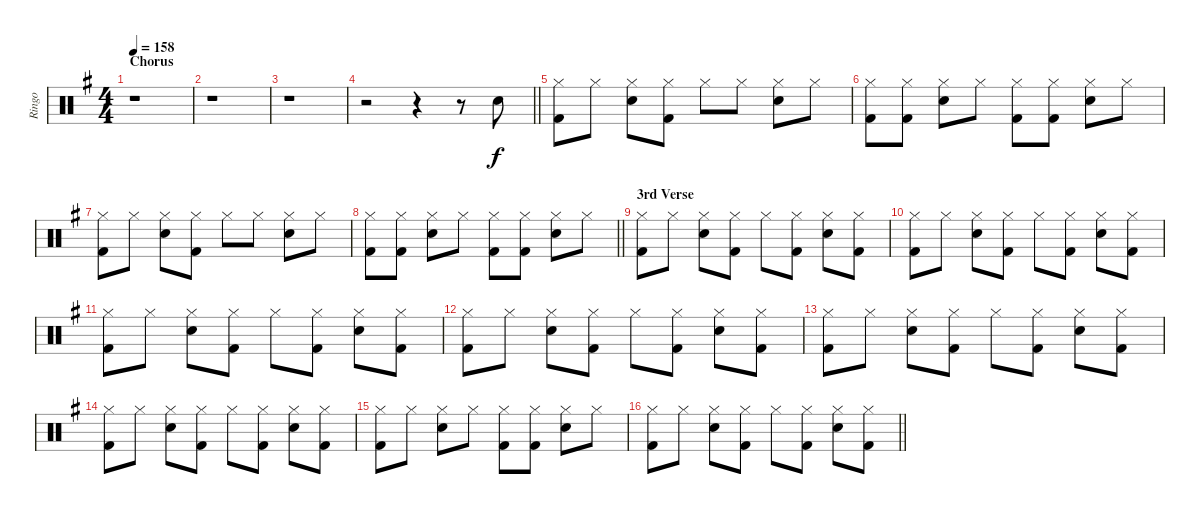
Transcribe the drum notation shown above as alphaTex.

\track ("Ringo" "Ringo") {instrument percussion}
\staff {score}
\articulation defaults
\ts (4 4)
\section ("" "Chorus")
\tempo 158
\clef neutral
\ks g
r.1{dy f} |
r.1 |
r.1 |
\barLineRight lightlight
r.2 r.4 r.8 "Electric Snare (hit)".8 |
\section ("" "")
("Hi-Hat (closed)" "Kick (hit) 2").8 "Hi-Hat (closed)".8 ("Hi-Hat (closed)" "Electric Snare (hit)").8 ("Hi-Hat (closed)" "Kick (hit) 2").8 "Hi-Hat (closed)".8 "Hi-Hat (closed)".8 ("Hi-Hat (closed)" "Electric Snare (hit)").8 "Hi-Hat (closed)".8 |
("Hi-Hat (closed)" "Kick (hit) 2").8 ("Hi-Hat (closed)" "Kick (hit) 2").8 ("Hi-Hat (closed)" "Electric Snare (hit)").8 "Hi-Hat (closed)".8 ("Hi-Hat (closed)" "Kick (hit) 2").8 ("Hi-Hat (closed)" "Kick (hit) 2").8 ("Hi-Hat (closed)" "Electric Snare (hit)").8 "Hi-Hat (closed)".8 |
("Hi-Hat (closed)" "Kick (hit) 2").8 "Hi-Hat (closed)".8 ("Hi-Hat (closed)" "Electric Snare (hit)").8 ("Hi-Hat (closed)" "Kick (hit) 2").8 "Hi-Hat (closed)".8 "Hi-Hat (closed)".8 ("Hi-Hat (closed)" "Electric Snare (hit)").8 "Hi-Hat (closed)".8 |
\barLineRight lightlight
("Hi-Hat (closed)" "Kick (hit) 2").8 ("Hi-Hat (closed)" "Kick (hit) 2").8 ("Hi-Hat (closed)" "Electric Snare (hit)").8 "Hi-Hat (closed)".8 ("Hi-Hat (closed)" "Kick (hit) 2").8 ("Hi-Hat (closed)" "Kick (hit) 2").8 ("Hi-Hat (closed)" "Electric Snare (hit)").8 "Hi-Hat (closed)".8 |
\section ("" "3rd Verse")
("Hi-Hat (closed)" "Kick (hit) 2").8 "Hi-Hat (closed)".8 ("Hi-Hat (closed)" "Electric Snare (hit)").8 ("Hi-Hat (closed)" "Kick (hit) 2").8 "Hi-Hat (closed)".8 ("Hi-Hat (closed)" "Kick (hit) 2").8 ("Hi-Hat (closed)" "Electric Snare (hit)").8 ("Hi-Hat (closed)" "Kick (hit) 2").8 |
("Hi-Hat (closed)" "Kick (hit) 2").8 "Hi-Hat (closed)".8 ("Hi-Hat (closed)" "Electric Snare (hit)").8 ("Hi-Hat (closed)" "Kick (hit) 2").8 "Hi-Hat (closed)".8 ("Hi-Hat (closed)" "Kick (hit) 2").8 ("Hi-Hat (closed)" "Electric Snare (hit)").8 ("Hi-Hat (closed)" "Kick (hit) 2").8 |
("Hi-Hat (closed)" "Kick (hit) 2").8 "Hi-Hat (closed)".8 ("Hi-Hat (closed)" "Electric Snare (hit)").8 ("Hi-Hat (closed)" "Kick (hit) 2").8 "Hi-Hat (closed)".8 ("Hi-Hat (closed)" "Kick (hit) 2").8 ("Hi-Hat (closed)" "Electric Snare (hit)").8 ("Hi-Hat (closed)" "Kick (hit) 2").8 |
("Hi-Hat (closed)" "Kick (hit) 2").8 "Hi-Hat (closed)".8 ("Hi-Hat (closed)" "Electric Snare (hit)").8 ("Hi-Hat (closed)" "Kick (hit) 2").8 "Hi-Hat (closed)".8 ("Hi-Hat (closed)" "Kick (hit) 2").8 ("Hi-Hat (closed)" "Electric Snare (hit)").8 ("Hi-Hat (closed)" "Kick (hit) 2").8 |
("Hi-Hat (closed)" "Kick (hit) 2").8 "Hi-Hat (closed)".8 ("Hi-Hat (closed)" "Electric Snare (hit)").8 ("Hi-Hat (closed)" "Kick (hit) 2").8 "Hi-Hat (closed)".8 ("Hi-Hat (closed)" "Kick (hit) 2").8 ("Hi-Hat (closed)" "Electric Snare (hit)").8 ("Hi-Hat (closed)" "Kick (hit) 2").8 |
("Hi-Hat (closed)" "Kick (hit) 2").8 "Hi-Hat (closed)".8 ("Hi-Hat (closed)" "Electric Snare (hit)").8 ("Hi-Hat (closed)" "Kick (hit) 2").8 "Hi-Hat (closed)".8 ("Hi-Hat (closed)" "Kick (hit) 2").8 ("Hi-Hat (closed)" "Electric Snare (hit)").8 ("Hi-Hat (closed)" "Kick (hit) 2").8 |
("Hi-Hat (closed)" "Kick (hit) 2").8 "Hi-Hat (closed)".8 ("Hi-Hat (closed)" "Electric Snare (hit)").8 "Hi-Hat (closed)".8 ("Hi-Hat (closed)" "Kick (hit) 2").8 ("Hi-Hat (closed)" "Kick (hit) 2").8 ("Hi-Hat (closed)" "Electric Snare (hit)").8 "Hi-Hat (closed)".8 |
\barLineRight lightlight
("Hi-Hat (closed)" "Kick (hit) 2").8 "Hi-Hat (closed)".8 ("Hi-Hat (closed)" "Electric Snare (hit)").8 ("Hi-Hat (closed)" "Kick (hit) 2").8 "Hi-Hat (closed)".8 ("Hi-Hat (closed)" "Kick (hit) 2").8 ("Hi-Hat (closed)" "Electric Snare (hit)").8 ("Hi-Hat (closed)" "Kick (hit) 2").8
